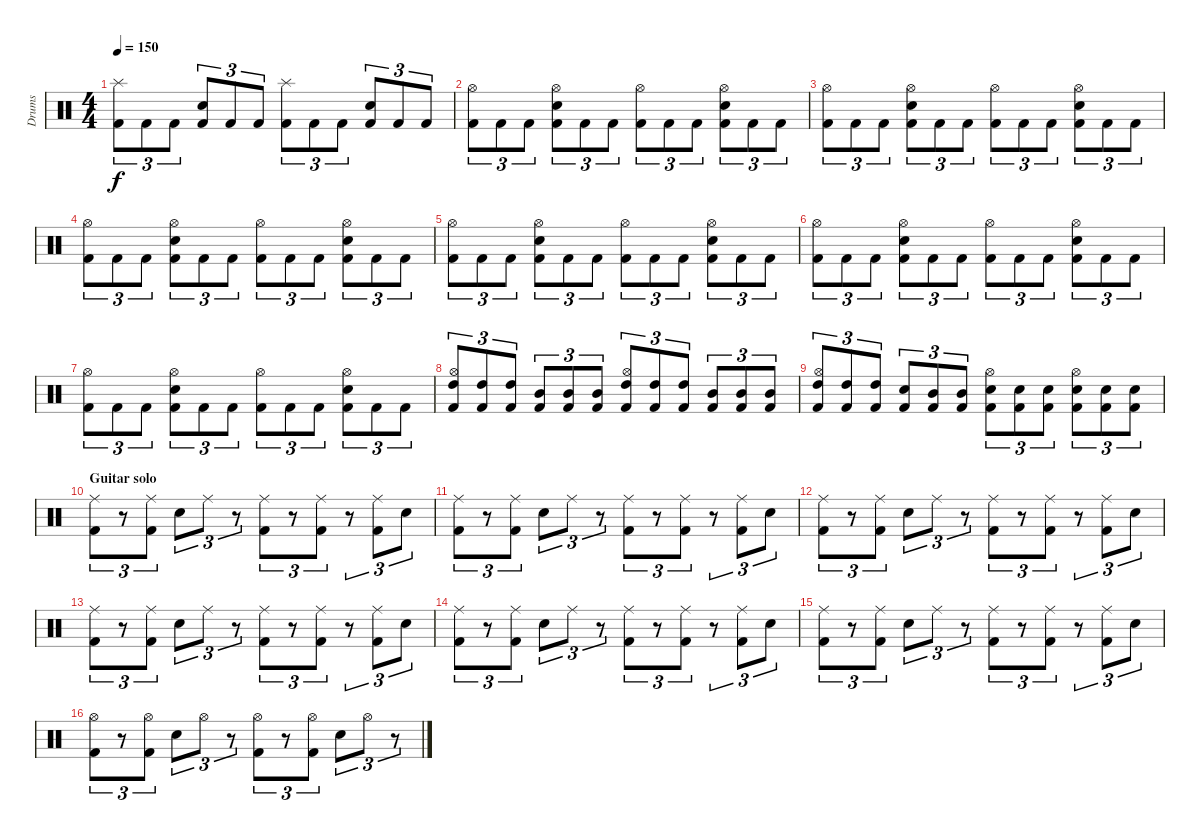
\track ("Drums" "Drums") {instrument percussion}
\staff {score}
\articulation defaults
\ts (4 4)
\tempo 150
\clef neutral
\ks c
("Kick (hit) 2" "Splash (hit)").8{tu (3 2) dy f} "Kick (hit) 2".8{tu (3 2)} "Kick (hit) 2".8{tu (3 2)} ("Kick (hit) 2" "Electric Snare (hit)").8{tu (3 2)} "Kick (hit) 2".8{tu (3 2)} "Kick (hit) 2".8{tu (3 2)} ("Kick (hit) 2" "Splash (hit)").8{tu (3 2)} "Kick (hit) 2".8{tu (3 2)} "Kick (hit) 2".8{tu (3 2)} ("Kick (hit) 2" "Electric Snare (hit)").8{tu (3 2)} "Kick (hit) 2".8{tu (3 2)} "Kick (hit) 2".8{tu (3 2)} |
("Kick (hit) 2" "Hi-Hat (open)").8{tu (3 2)} "Kick (hit) 2".8{tu (3 2)} "Kick (hit) 2".8{tu (3 2)} ("Kick (hit) 2" "Electric Snare (hit)" "Hi-Hat (open)").8{tu (3 2)} "Kick (hit) 2".8{tu (3 2)} "Kick (hit) 2".8{tu (3 2)} ("Kick (hit) 2" "Hi-Hat (open)").8{tu (3 2)} "Kick (hit) 2".8{tu (3 2)} "Kick (hit) 2".8{tu (3 2)} ("Kick (hit) 2" "Electric Snare (hit)" "Hi-Hat (open)").8{tu (3 2)} "Kick (hit) 2".8{tu (3 2)} "Kick (hit) 2".8{tu (3 2)} |
("Kick (hit) 2" "Hi-Hat (open)").8{tu (3 2)} "Kick (hit) 2".8{tu (3 2)} "Kick (hit) 2".8{tu (3 2)} ("Kick (hit) 2" "Electric Snare (hit)" "Hi-Hat (open)").8{tu (3 2)} "Kick (hit) 2".8{tu (3 2)} "Kick (hit) 2".8{tu (3 2)} ("Kick (hit) 2" "Hi-Hat (open)").8{tu (3 2)} "Kick (hit) 2".8{tu (3 2)} "Kick (hit) 2".8{tu (3 2)} ("Kick (hit) 2" "Electric Snare (hit)" "Hi-Hat (open)").8{tu (3 2)} "Kick (hit) 2".8{tu (3 2)} "Kick (hit) 2".8{tu (3 2)} |
("Kick (hit) 2" "Hi-Hat (open)").8{tu (3 2)} "Kick (hit) 2".8{tu (3 2)} "Kick (hit) 2".8{tu (3 2)} ("Kick (hit) 2" "Electric Snare (hit)" "Hi-Hat (open)").8{tu (3 2)} "Kick (hit) 2".8{tu (3 2)} "Kick (hit) 2".8{tu (3 2)} ("Kick (hit) 2" "Hi-Hat (open)").8{tu (3 2)} "Kick (hit) 2".8{tu (3 2)} "Kick (hit) 2".8{tu (3 2)} ("Kick (hit) 2" "Electric Snare (hit)" "Hi-Hat (open)").8{tu (3 2)} "Kick (hit) 2".8{tu (3 2)} "Kick (hit) 2".8{tu (3 2)} |
("Kick (hit) 2" "Hi-Hat (open)").8{tu (3 2)} "Kick (hit) 2".8{tu (3 2)} "Kick (hit) 2".8{tu (3 2)} ("Kick (hit) 2" "Electric Snare (hit)" "Hi-Hat (open)").8{tu (3 2)} "Kick (hit) 2".8{tu (3 2)} "Kick (hit) 2".8{tu (3 2)} ("Kick (hit) 2" "Hi-Hat (open)").8{tu (3 2)} "Kick (hit) 2".8{tu (3 2)} "Kick (hit) 2".8{tu (3 2)} ("Kick (hit) 2" "Electric Snare (hit)" "Hi-Hat (open)").8{tu (3 2)} "Kick (hit) 2".8{tu (3 2)} "Kick (hit) 2".8{tu (3 2)} |
("Kick (hit) 2" "Hi-Hat (open)").8{tu (3 2)} "Kick (hit) 2".8{tu (3 2)} "Kick (hit) 2".8{tu (3 2)} ("Kick (hit) 2" "Electric Snare (hit)" "Hi-Hat (open)").8{tu (3 2)} "Kick (hit) 2".8{tu (3 2)} "Kick (hit) 2".8{tu (3 2)} ("Kick (hit) 2" "Hi-Hat (open)").8{tu (3 2)} "Kick (hit) 2".8{tu (3 2)} "Kick (hit) 2".8{tu (3 2)} ("Kick (hit) 2" "Electric Snare (hit)" "Hi-Hat (open)").8{tu (3 2)} "Kick (hit) 2".8{tu (3 2)} "Kick (hit) 2".8{tu (3 2)} |
("Kick (hit) 2" "Hi-Hat (open)").8{tu (3 2)} "Kick (hit) 2".8{tu (3 2)} "Kick (hit) 2".8{tu (3 2)} ("Kick (hit) 2" "Electric Snare (hit)" "Hi-Hat (open)").8{tu (3 2)} "Kick (hit) 2".8{tu (3 2)} "Kick (hit) 2".8{tu (3 2)} ("Kick (hit) 2" "Hi-Hat (open)").8{tu (3 2)} "Kick (hit) 2".8{tu (3 2)} "Kick (hit) 2".8{tu (3 2)} ("Kick (hit) 2" "Electric Snare (hit)" "Hi-Hat (open)").8{tu (3 2)} "Kick (hit) 2".8{tu (3 2)} "Kick (hit) 2".8{tu (3 2)} |
("Kick (hit) 2" "High Tom (hit)" "Hi-Hat (open)").8{tu (3 2)} ("Kick (hit) 2" "High Tom (hit)").8{tu (3 2)} ("Kick (hit) 2" "High Tom (hit)").8{tu (3 2)} ("Kick (hit) 2" "Mid Tom (hit)").8{tu (3 2)} ("Kick (hit) 2" "Mid Tom (hit)").8{tu (3 2)} ("Kick (hit) 2" "Mid Tom (hit)").8{tu (3 2)} ("Kick (hit) 2" "High Tom (hit)" "Hi-Hat (open)").8{tu (3 2)} ("Kick (hit) 2" "High Tom (hit)").8{tu (3 2)} ("Kick (hit) 2" "High Tom (hit)").8{tu (3 2)} ("Kick (hit) 2" "Mid Tom (hit)").8{tu (3 2)} ("Kick (hit) 2" "Mid Tom (hit)").8{tu (3 2)} ("Kick (hit) 2" "Mid Tom (hit)").8{tu (3 2)} |
("Kick (hit) 2" "High Tom (hit)" "Hi-Hat (open)").8{tu (3 2)} ("Kick (hit) 2" "High Tom (hit)").8{tu (3 2)} ("Kick (hit) 2" "High Tom (hit)").8{tu (3 2)} ("Kick (hit) 2" "Electric Snare (hit)").8{tu (3 2)} ("Kick (hit) 2" "Mid Tom (hit)").8{tu (3 2)} ("Kick (hit) 2" "Mid Tom (hit)").8{tu (3 2)} ("Kick (hit) 2" "Electric Snare (hit)" "Hi-Hat (open)").8{tu (3 2)} ("Kick (hit) 2" "Electric Snare (hit)").8{tu (3 2)} ("Kick (hit) 2" "Electric Snare (hit)").8{tu (3 2)} ("Kick (hit) 2" "Electric Snare (hit)" "Hi-Hat (open)").8{tu (3 2)} ("Kick (hit) 2" "Electric Snare (hit)").8{tu (3 2)} ("Kick (hit) 2" "Electric Snare (hit)").8{tu (3 2)} |
\section ("" "Guitar solo")
("Kick (hit) 2" "Ride (middle)").8{tu (3 2)} r.8{tu (3 2)} ("Kick (hit) 2" "Ride (middle)").8{tu (3 2)} "Electric Snare (hit)".8{tu (3 2)} "Ride (middle)".8{tu (3 2)} r.8{tu (3 2)} ("Kick (hit) 2" "Ride (middle)").8{tu (3 2)} r.8{tu (3 2)} ("Kick (hit) 2" "Ride (middle)").8{tu (3 2)} r.8{tu (3 2)} ("Kick (hit) 2" "Ride (middle)").8{tu (3 2)} "Electric Snare (hit)".8{tu (3 2)} |
("Kick (hit) 2" "Ride (middle)").8{tu (3 2)} r.8{tu (3 2)} ("Kick (hit) 2" "Ride (middle)").8{tu (3 2)} "Electric Snare (hit)".8{tu (3 2)} "Ride (middle)".8{tu (3 2)} r.8{tu (3 2)} ("Kick (hit) 2" "Ride (middle)").8{tu (3 2)} r.8{tu (3 2)} ("Kick (hit) 2" "Ride (middle)").8{tu (3 2)} r.8{tu (3 2)} ("Kick (hit) 2" "Ride (middle)").8{tu (3 2)} "Electric Snare (hit)".8{tu (3 2)} |
("Kick (hit) 2" "Ride (middle)").8{tu (3 2)} r.8{tu (3 2)} ("Kick (hit) 2" "Ride (middle)").8{tu (3 2)} "Electric Snare (hit)".8{tu (3 2)} "Ride (middle)".8{tu (3 2)} r.8{tu (3 2)} ("Kick (hit) 2" "Ride (middle)").8{tu (3 2)} r.8{tu (3 2)} ("Kick (hit) 2" "Ride (middle)").8{tu (3 2)} r.8{tu (3 2)} ("Kick (hit) 2" "Ride (middle)").8{tu (3 2)} "Electric Snare (hit)".8{tu (3 2)} |
("Kick (hit) 2" "Ride (middle)").8{tu (3 2)} r.8{tu (3 2)} ("Kick (hit) 2" "Ride (middle)").8{tu (3 2)} "Electric Snare (hit)".8{tu (3 2)} "Ride (middle)".8{tu (3 2)} r.8{tu (3 2)} ("Kick (hit) 2" "Ride (middle)").8{tu (3 2)} r.8{tu (3 2)} ("Kick (hit) 2" "Ride (middle)").8{tu (3 2)} r.8{tu (3 2)} ("Kick (hit) 2" "Ride (middle)").8{tu (3 2)} "Electric Snare (hit)".8{tu (3 2)} |
("Kick (hit) 2" "Ride (middle)").8{tu (3 2)} r.8{tu (3 2)} ("Kick (hit) 2" "Ride (middle)").8{tu (3 2)} "Electric Snare (hit)".8{tu (3 2)} "Ride (middle)".8{tu (3 2)} r.8{tu (3 2)} ("Kick (hit) 2" "Ride (middle)").8{tu (3 2)} r.8{tu (3 2)} ("Kick (hit) 2" "Ride (middle)").8{tu (3 2)} r.8{tu (3 2)} ("Kick (hit) 2" "Ride (middle)").8{tu (3 2)} "Electric Snare (hit)".8{tu (3 2)} |
("Kick (hit) 2" "Ride (middle)").8{tu (3 2)} r.8{tu (3 2)} ("Kick (hit) 2" "Ride (middle)").8{tu (3 2)} "Electric Snare (hit)".8{tu (3 2)} "Ride (middle)".8{tu (3 2)} r.8{tu (3 2)} ("Kick (hit) 2" "Ride (middle)").8{tu (3 2)} r.8{tu (3 2)} ("Kick (hit) 2" "Ride (middle)").8{tu (3 2)} r.8{tu (3 2)} ("Kick (hit) 2" "Ride (middle)").8{tu (3 2)} "Electric Snare (hit)".8{tu (3 2)} |
("Kick (hit) 2" "Hi-Hat (open)").8{tu (3 2)} r.8{tu (3 2)} ("Kick (hit) 2" "Hi-Hat (open)").8{tu (3 2)} "Electric Snare (hit)".8{tu (3 2)} "Hi-Hat (open)".8{tu (3 2)} r.8{tu (3 2)} ("Kick (hit) 2" "Hi-Hat (open)").8{tu (3 2)} r.8{tu (3 2)} ("Kick (hit) 2" "Hi-Hat (open)").8{tu (3 2)} "Electric Snare (hit)".8{tu (3 2)} "Hi-Hat (open)".8{tu (3 2)} r.8{tu (3 2)}
